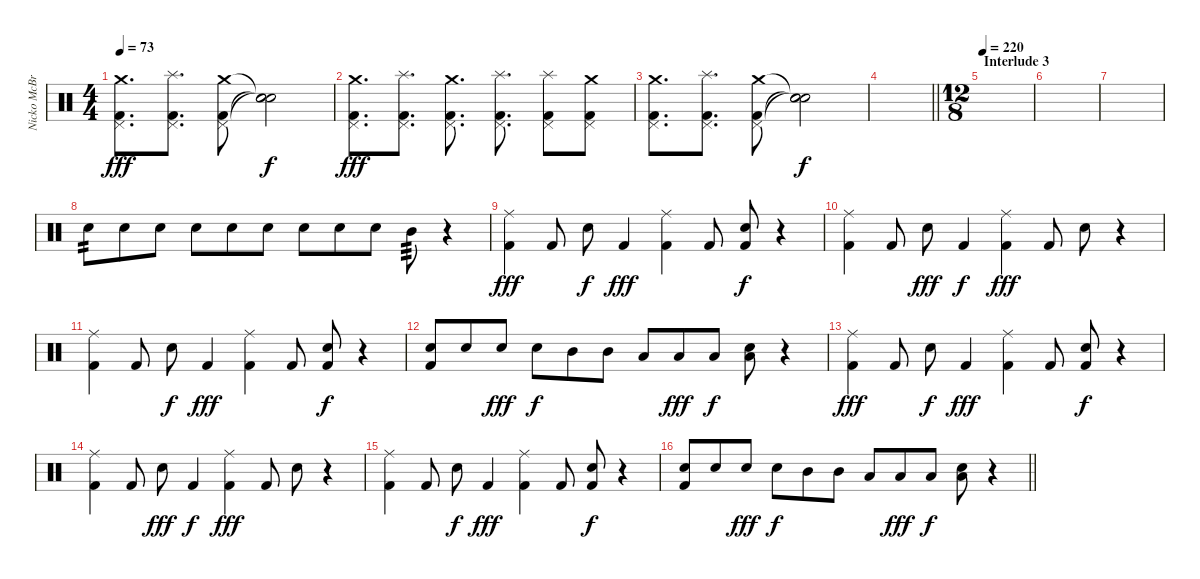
\track ("Nicko McBrain" "Nicko McBr") {instrument percussion}
\staff {score}
\articulation defaults
\ts (4 4)
\tempo 73
\clef neutral
\ks c
("Crash medium (hit)" "Pedal Hi-Hat (hit)" "Kick (hit) 2").8{d dy fff} ("Splash (hit)" "Pedal Hi-Hat (hit)" "Kick (hit) 2").8{d} ("Crash medium (hit)" "Pedal Hi-Hat (hit)" "Kick (hit) 2").8 ("Snare (hit)"{t} "Snare (hit)"{t} "Snare (hit)"{t}).2{dy f} |
("Crash medium (hit)" "Pedal Hi-Hat (hit)" "Kick (hit) 2").8{d dy fff} ("Splash (hit)" "Pedal Hi-Hat (hit)" "Kick (hit) 2").8{d} ("Crash medium (hit)" "Pedal Hi-Hat (hit)" "Kick (hit) 2").8{d} ("Splash (hit)" "Pedal Hi-Hat (hit)" "Kick (hit) 2").8{d} ("Splash (hit)" "Pedal Hi-Hat (hit)" "Kick (hit) 2").8 ("Crash medium (hit)" "Pedal Hi-Hat (hit)" "Kick (hit) 2").8 |
("Crash medium (hit)" "Pedal Hi-Hat (hit)" "Kick (hit) 2").8{d} ("Splash (hit)" "Pedal Hi-Hat (hit)" "Kick (hit) 2").8{d} ("Crash medium (hit)" "Pedal Hi-Hat (hit)" "Kick (hit) 2").8 ("Snare (hit)"{t} "Snare (hit)"{t} "Snare (hit)"{t}).2{dy f} |
\barLineRight lightlight
|
\ts (12 8)
\section ("" "Interlude 3")
\tempo 220
|
|
|
"Snare (hit) 2".8{tp 2} "Snare (hit) 2".8 "Snare (hit) 2".8 "Snare (hit) 2".8 "Snare (hit) 2".8 "Snare (hit) 2".8 "Snare (hit) 2".8 "Snare (hit) 2".8 "Snare (hit) 2".8 "Mid Tom (hit)".8{tp 3} r.4 |
("Ride (middle)" "Kick (hit) 2").4{dy fff} "Kick (hit) 2".8 "Snare (hit) 2".8{dy f} "Kick (hit) 2".4{dy fff} ("Ride (middle)" "Kick (hit) 2").4 "Kick (hit) 2".8 ("Snare (hit) 2" "Kick (hit) 2").8{dy f} r.4 |
("Ride (middle)" "Kick (hit) 2").4 "Kick (hit) 2".8 "Snare (hit) 2".8{dy fff} "Kick (hit) 2".4{dy f} ("Ride (middle)" "Kick (hit) 2").4{dy fff} "Kick (hit) 2".8 "Snare (hit) 2".8 r.4 |
("Ride (middle)" "Kick (hit) 2").4 "Kick (hit) 2".8 "Snare (hit) 2".8{dy f} "Kick (hit) 2".4{dy fff} ("Ride (middle)" "Kick (hit) 2").4 "Kick (hit) 2".8 ("Snare (hit) 2" "Kick (hit) 2").8{dy f} r.4 |
("Snare (hit) 2" "Kick (hit) 2").8 "Snare (hit) 2".8 "Snare (hit) 2".8{dy fff} "Snare (hit) 2".8{dy f} "Mid Tom (hit)".8 "Mid Tom (hit)".8 "Low Tom (hit)".8 "Low Tom (hit)".8{dy fff} "Low Tom (hit)".8{dy f} ("Snare (hit) 2" "Low Tom (hit)").8 r.4 |
("Ride (middle)" "Kick (hit) 2").4{dy fff} "Kick (hit) 2".8 "Snare (hit) 2".8{dy f} "Kick (hit) 2".4{dy fff} ("Ride (middle)" "Kick (hit) 2").4 "Kick (hit) 2".8 ("Snare (hit) 2" "Kick (hit) 2").8{dy f} r.4 |
("Ride (middle)" "Kick (hit) 2").4 "Kick (hit) 2".8 "Snare (hit) 2".8{dy fff} "Kick (hit) 2".4{dy f} ("Ride (middle)" "Kick (hit) 2").4{dy fff} "Kick (hit) 2".8 "Snare (hit) 2".8 r.4 |
("Ride (middle)" "Kick (hit) 2").4 "Kick (hit) 2".8 "Snare (hit) 2".8{dy f} "Kick (hit) 2".4{dy fff} ("Ride (middle)" "Kick (hit) 2").4 "Kick (hit) 2".8 ("Snare (hit) 2" "Kick (hit) 2").8{dy f} r.4 |
\barLineRight lightlight
("Snare (hit) 2" "Kick (hit) 2").8 "Snare (hit) 2".8 "Snare (hit) 2".8{dy fff} "Snare (hit) 2".8{dy f} "Mid Tom (hit)".8 "Mid Tom (hit)".8 "Low Tom (hit)".8 "Low Tom (hit)".8{dy fff} "Low Tom (hit)".8{dy f} ("Snare (hit) 2" "Low Tom (hit)").8 r.4
